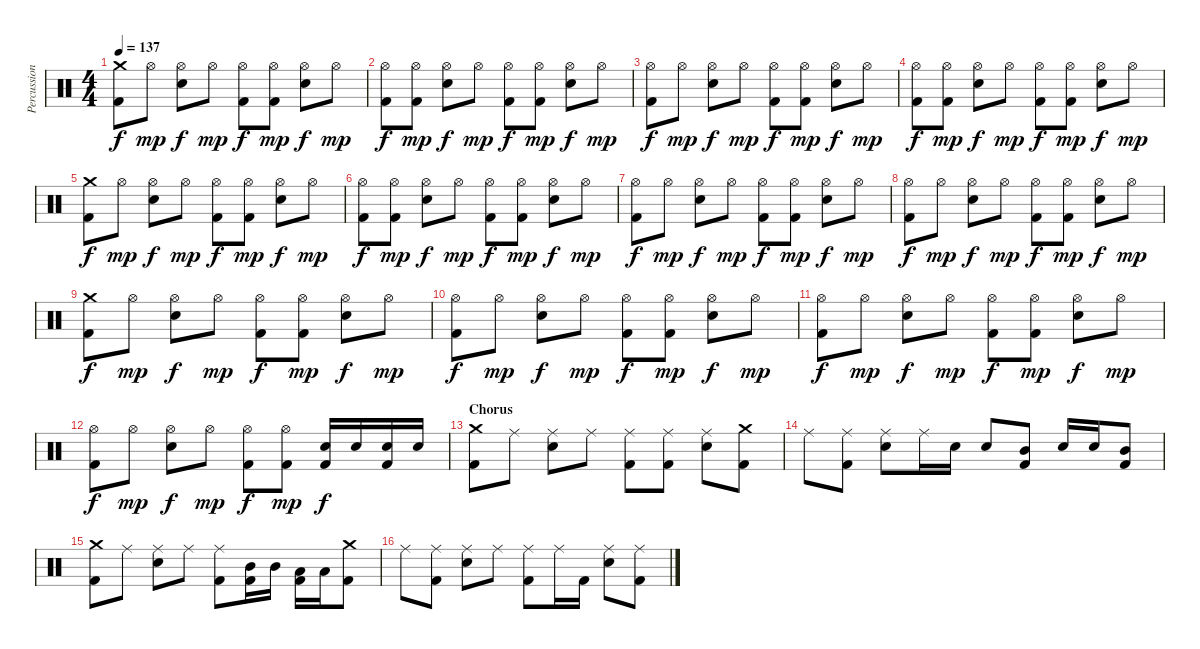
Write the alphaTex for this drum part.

\track ("Percussion" "Percussion") {instrument percussion}
\staff {score}
\articulation defaults
\ts (4 4)
\tempo 137
\clef neutral
\ks c
("Crash medium (hit)" "Kick (hit) 2").8{dy f} "Hi-Hat (open)".8{dy mp} ("Hi-Hat (open)" "Electric Snare (hit)").8{dy f} "Hi-Hat (open)".8{dy mp} ("Hi-Hat (open)" "Kick (hit) 2").8{dy f} ("Hi-Hat (open)" "Kick (hit) 2").8{dy mp} ("Hi-Hat (open)" "Electric Snare (hit)").8{dy f} "Hi-Hat (open)".8{dy mp} |
("Hi-Hat (open)" "Kick (hit) 2").8{dy f} ("Hi-Hat (open)" "Kick (hit) 2").8{dy mp} ("Hi-Hat (open)" "Electric Snare (hit)").8{dy f} "Hi-Hat (open)".8{dy mp} ("Hi-Hat (open)" "Kick (hit) 2").8{dy f} ("Hi-Hat (open)" "Kick (hit) 2").8{dy mp} ("Hi-Hat (open)" "Electric Snare (hit)").8{dy f} "Hi-Hat (open)".8{dy mp} |
("Hi-Hat (open)" "Kick (hit) 2").8{dy f} "Hi-Hat (open)".8{dy mp} ("Hi-Hat (open)" "Electric Snare (hit)").8{dy f} "Hi-Hat (open)".8{dy mp} ("Hi-Hat (open)" "Kick (hit) 2").8{dy f} ("Hi-Hat (open)" "Kick (hit) 2").8{dy mp} ("Hi-Hat (open)" "Electric Snare (hit)").8{dy f} "Hi-Hat (open)".8{dy mp} |
("Hi-Hat (open)" "Kick (hit) 2").8{dy f} ("Hi-Hat (open)" "Kick (hit) 2").8{dy mp} ("Hi-Hat (open)" "Electric Snare (hit)").8{dy f} "Hi-Hat (open)".8{dy mp} ("Hi-Hat (open)" "Kick (hit) 2").8{dy f} ("Hi-Hat (open)" "Kick (hit) 2").8{dy mp} ("Hi-Hat (open)" "Electric Snare (hit)").8{dy f} "Hi-Hat (open)".8{dy mp} |
("Crash medium (hit)" "Kick (hit) 2").8{dy f} "Hi-Hat (open)".8{dy mp} ("Hi-Hat (open)" "Electric Snare (hit)").8{dy f} "Hi-Hat (open)".8{dy mp} ("Hi-Hat (open)" "Kick (hit) 2").8{dy f} ("Hi-Hat (open)" "Kick (hit) 2").8{dy mp} ("Hi-Hat (open)" "Electric Snare (hit)").8{dy f} "Hi-Hat (open)".8{dy mp} |
("Hi-Hat (open)" "Kick (hit) 2").8{dy f} ("Hi-Hat (open)" "Kick (hit) 2").8{dy mp} ("Hi-Hat (open)" "Electric Snare (hit)").8{dy f} "Hi-Hat (open)".8{dy mp} ("Hi-Hat (open)" "Kick (hit) 2").8{dy f} ("Hi-Hat (open)" "Kick (hit) 2").8{dy mp} ("Hi-Hat (open)" "Electric Snare (hit)").8{dy f} "Hi-Hat (open)".8{dy mp} |
("Hi-Hat (open)" "Kick (hit) 2").8{dy f} "Hi-Hat (open)".8{dy mp} ("Hi-Hat (open)" "Electric Snare (hit)").8{dy f} "Hi-Hat (open)".8{dy mp} ("Hi-Hat (open)" "Kick (hit) 2").8{dy f} ("Hi-Hat (open)" "Kick (hit) 2").8{dy mp} ("Hi-Hat (open)" "Electric Snare (hit)").8{dy f} "Hi-Hat (open)".8{dy mp} |
("Hi-Hat (open)" "Kick (hit) 2").8{dy f} "Hi-Hat (open)".8{dy mp} ("Hi-Hat (open)" "Electric Snare (hit)").8{dy f} "Hi-Hat (open)".8{dy mp} ("Hi-Hat (open)" "Kick (hit) 2").8{dy f} ("Hi-Hat (open)" "Kick (hit) 2").8{dy mp} ("Hi-Hat (open)" "Electric Snare (hit)").8{dy f} "Hi-Hat (open)".8{dy mp} |
("Crash medium (hit)" "Kick (hit) 2").8{dy f} "Hi-Hat (open)".8{dy mp} ("Hi-Hat (open)" "Electric Snare (hit)").8{dy f} "Hi-Hat (open)".8{dy mp} ("Hi-Hat (open)" "Kick (hit) 2").8{dy f} ("Hi-Hat (open)" "Kick (hit) 2").8{dy mp} ("Hi-Hat (open)" "Electric Snare (hit)").8{dy f} "Hi-Hat (open)".8{dy mp} |
("Hi-Hat (open)" "Kick (hit) 2").8{dy f} "Hi-Hat (open)".8{dy mp} ("Hi-Hat (open)" "Electric Snare (hit)").8{dy f} "Hi-Hat (open)".8{dy mp} ("Hi-Hat (open)" "Kick (hit) 2").8{dy f} ("Hi-Hat (open)" "Kick (hit) 2").8{dy mp} ("Hi-Hat (open)" "Electric Snare (hit)").8{dy f} "Hi-Hat (open)".8{dy mp} |
("Hi-Hat (open)" "Kick (hit) 2").8{dy f} "Hi-Hat (open)".8{dy mp} ("Hi-Hat (open)" "Electric Snare (hit)").8{dy f} "Hi-Hat (open)".8{dy mp} ("Hi-Hat (open)" "Kick (hit) 2").8{dy f} ("Hi-Hat (open)" "Kick (hit) 2").8{dy mp} ("Hi-Hat (open)" "Electric Snare (hit)").8{dy f} "Hi-Hat (open)".8{dy mp} |
("Hi-Hat (open)" "Kick (hit) 2").8{dy f} "Hi-Hat (open)".8{dy mp} ("Hi-Hat (open)" "Electric Snare (hit)").8{dy f} "Hi-Hat (open)".8{dy mp} ("Hi-Hat (open)" "Kick (hit) 2").8{dy f} ("Hi-Hat (open)" "Kick (hit) 2").8{dy mp} ("Electric Snare (hit)" "Kick (hit) 2").16{dy f} "Electric Snare (hit)".16 ("Electric Snare (hit)" "Kick (hit) 2").16 "Electric Snare (hit)".16 |
\section ("" "Chorus")
("Crash medium (hit)" "Kick (hit) 2").8 "Ride (middle)".8 ("Ride (middle)" "Electric Snare (hit)").8 "Ride (middle)".8 ("Ride (middle)" "Kick (hit) 2").8 ("Ride (middle)" "Kick (hit) 2").8 ("Ride (middle)" "Electric Snare (hit)").8 ("Crash medium (hit)" "Kick (hit) 2").8 |
"Ride (middle)".8 ("Ride (middle)" "Kick (hit) 2").8 ("Ride (middle)" "Electric Snare (hit)").8 "Ride (middle)".16 "Electric Snare (hit)".16 "Electric Snare (hit)".8 ("Mid Tom (hit)" "Kick (hit) 2").8 "Electric Snare (hit)".16 "Electric Snare (hit)".16 ("Mid Tom (hit)" "Kick (hit) 2").8 |
("Crash medium (hit)" "Kick (hit) 2").8 "Ride (middle)".8 ("Ride (middle)" "Electric Snare (hit)").8 "Ride (middle)".8 ("Ride (middle)" "Kick (hit) 2").8 ("Mid Tom (hit)" "Kick (hit) 2").16 "Mid Tom (hit)".16 ("Low Tom (hit)" "Kick (hit) 2").16 "Low Tom (hit)".16 ("Crash medium (hit)" "Kick (hit) 2").8 |
"Ride (middle)".8 ("Ride (middle)" "Kick (hit) 2").8 ("Ride (middle)" "Electric Snare (hit)").8 "Ride (middle)".8 ("Ride (middle)" "Kick (hit) 2").8 "Ride (middle)".16 "Kick (hit) 2".16 ("Ride (middle)" "Electric Snare (hit)").8 ("Ride (middle)" "Kick (hit) 2").8
